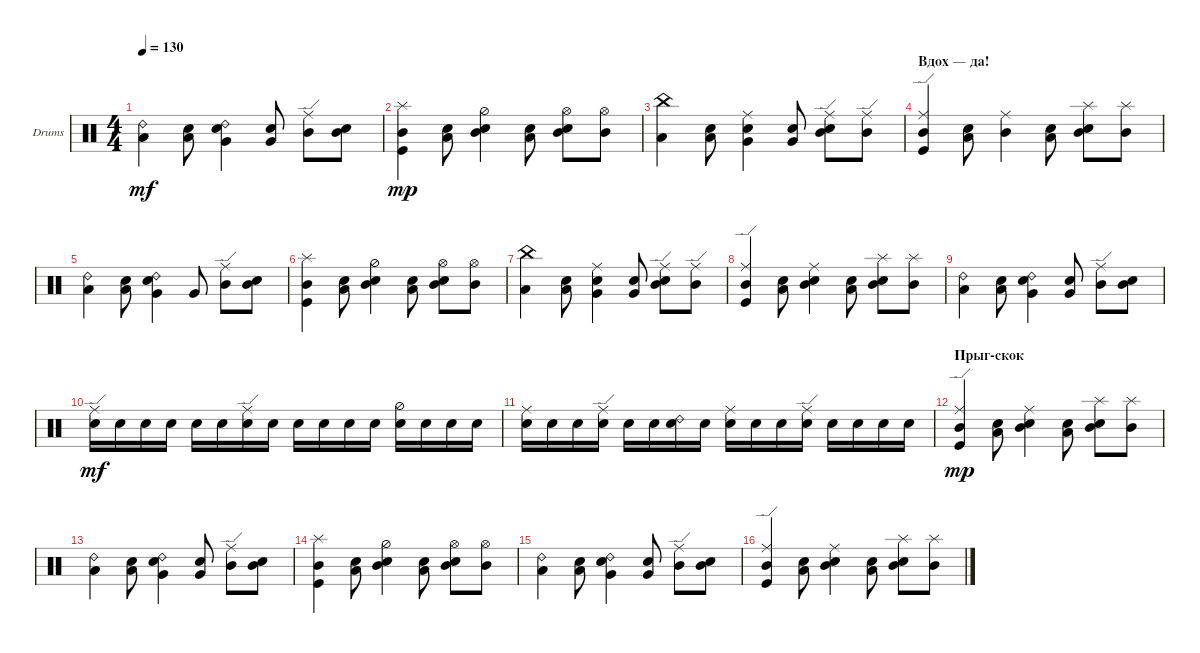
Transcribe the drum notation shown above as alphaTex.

\defaultSystemsLayout 4
\bracketExtendMode groupsimilarinstruments
\firstSystemTrackNameOrientation horizontal
\otherSystemsTrackNameOrientation horizontal
\track ("Drumkit" "Drums") {instrument percussion}
\staff {score}
\articulation defaults
\ts (4 4)
\tempo 130
\clef neutral
\ks c
("Low Tom (hit)" "Ride (bell) 2").4{dy mf} ("Low Tom (hit)" "Snare (hit) 2").8 ("Very Low Tom (hit)" "Snare (hit) 2" "Ride (bell) 2").4 ("Very Low Tom (hit)" "Snare (hit) 2").8 ("Mid Tom (hit)" "Ride (edge)").8 ("Mid Tom (hit)" "Snare (hit) 2").8 |
("Mid Tom (hit)" "Kick (hit)" "Splash (hit)").4{dy mp} ("Low Tom (hit)" "Snare (hit) 2").8 ("Mid Tom (hit)" "Snare (hit) 2" "Hi-Hat (half)").4 ("Low Tom (hit)" "Snare (hit) 2").8 ("Mid Tom (hit)" "Snare (hit) 2" "Hi-Hat (open)").8 ("Mid Tom (hit)" "Hi-Hat (open)").8 |
("Low Tom (hit)" "China (hit)").4 ("Low Tom (hit)" "Snare (hit) 2").8 ("Very Low Tom (hit)" "Snare (hit) 2" "Ride (middle)").4 ("Very Low Tom (hit)" "Snare (hit) 2").8 ("Mid Tom (hit)" "Snare (hit) 2" "Ride (edge)").8 ("Mid Tom (hit)" "Ride (edge)").8 |
\section ("" "Вдох — да!")
("Mid Tom (hit)" "Kick (hit)" "Ride (edge)").4 ("Low Tom (hit)" "Snare (hit) 2").8 ("Mid Tom (hit)" "Ride (middle)").4 ("Low Tom (hit)" "Snare (hit) 2").8 ("Mid Tom (hit)" "Snare (hit) 2" "Splash (hit)").8 ("Mid Tom (hit)" "Splash (hit)").8 |
("Low Tom (hit)" "Ride (bell) 2").4 ("Low Tom (hit)" "Snare (hit) 2").8 ("Very Low Tom (hit)" "Snare (hit) 2" "Ride (bell) 2").4 "Very Low Tom (hit)".8 ("Mid Tom (hit)" "Ride (edge)").8 ("Mid Tom (hit)" "Snare (hit) 2").8 |
("Mid Tom (hit)" "Kick (hit)" "Splash (hit)").4 ("Low Tom (hit)" "Snare (hit) 2").8 ("Mid Tom (hit)" "Snare (hit) 2" "Hi-Hat (half)").4 ("Low Tom (hit)" "Snare (hit) 2").8 ("Mid Tom (hit)" "Snare (hit) 2" "Hi-Hat (open)").8 ("Mid Tom (hit)" "Hi-Hat (open)").8 |
("Low Tom (hit)" "China (hit)").4 ("Low Tom (hit)" "Snare (hit) 2").8 ("Very Low Tom (hit)" "Snare (hit) 2" "Ride (middle)").4 ("Very Low Tom (hit)" "Snare (hit) 2").8 ("Mid Tom (hit)" "Snare (hit) 2" "Ride (edge)").8 ("Mid Tom (hit)" "Ride (edge)").8 |
("Mid Tom (hit)" "Kick (hit)" "Ride (edge)").4 ("Low Tom (hit)" "Snare (hit) 2").8 ("Mid Tom (hit)" "Snare (hit) 2" "Ride (middle)").4 ("Low Tom (hit)" "Snare (hit) 2").8 ("Mid Tom (hit)" "Snare (hit) 2" "Splash (hit)").8 ("Mid Tom (hit)" "Splash (hit)").8 |
("Low Tom (hit)" "Ride (bell) 2").4 ("Low Tom (hit)" "Snare (hit) 2").8 ("Very Low Tom (hit)" "Snare (hit) 2" "Ride (bell) 2").4 ("Very Low Tom (hit)" "Snare (hit) 2").8 ("Mid Tom (hit)" "Ride (edge)").8 ("Mid Tom (hit)" "Snare (hit) 2").8 |
("Snare (hit) 2" "Ride (edge)").16{dy mf} "Snare (hit) 2".16 "Snare (hit) 2".16 "Snare (hit) 2".16 "Snare (hit) 2".16 "Snare (hit) 2".16 ("Snare (hit) 2" "Ride (edge)").16 "Snare (hit) 2".16 "Snare (hit) 2".16 "Snare (hit) 2".16 "Snare (hit) 2".16 "Snare (hit) 2".16 ("Snare (hit) 2" "Hi-Hat (half)").16 "Snare (hit) 2".16 "Snare (hit) 2".16 "Snare (hit) 2".16 |
("Snare (hit) 2" "Ride (middle)").16 "Snare (hit) 2".16 "Snare (hit) 2".16 ("Snare (hit) 2" "Ride (edge)").16 "Snare (hit) 2".16 "Snare (hit) 2".16 ("Snare (hit) 2" "Ride (bell) 2").16 "Snare (hit) 2".16 ("Snare (hit) 2" "Ride (middle)").16 "Snare (hit) 2".16 "Snare (hit) 2".16 ("Snare (hit) 2" "Ride (edge)").16 "Snare (hit) 2".16 "Snare (hit) 2".16 "Snare (hit) 2".16 "Snare (hit) 2".16 |
\section ("" "Прыг-скок")
("Mid Tom (hit)" "Kick (hit)" "Ride (edge)").4{dy mp} ("Low Tom (hit)" "Snare (hit) 2").8 ("Mid Tom (hit)" "Snare (hit) 2" "Ride (middle)").4 ("Low Tom (hit)" "Snare (hit) 2").8 ("Mid Tom (hit)" "Snare (hit) 2" "Splash (hit)").8 ("Mid Tom (hit)" "Splash (hit)").8 |
("Low Tom (hit)" "Ride (bell) 2").4 ("Low Tom (hit)" "Snare (hit) 2").8 ("Very Low Tom (hit)" "Snare (hit) 2" "Ride (bell) 2").4 ("Very Low Tom (hit)" "Snare (hit) 2").8 ("Mid Tom (hit)" "Ride (edge)").8 ("Mid Tom (hit)" "Snare (hit) 2").8 |
("Mid Tom (hit)" "Kick (hit)" "Splash (hit)").4 ("Low Tom (hit)" "Snare (hit) 2").8 ("Mid Tom (hit)" "Snare (hit) 2" "Hi-Hat (half)").4 ("Low Tom (hit)" "Snare (hit) 2").8 ("Mid Tom (hit)" "Snare (hit) 2" "Hi-Hat (open)").8 ("Mid Tom (hit)" "Hi-Hat (open)").8 |
("Low Tom (hit)" "Ride (bell) 2").4 ("Low Tom (hit)" "Snare (hit) 2").8 ("Very Low Tom (hit)" "Snare (hit) 2" "Ride (bell) 2").4 ("Very Low Tom (hit)" "Snare (hit) 2").8 ("Mid Tom (hit)" "Ride (edge)").8 ("Mid Tom (hit)" "Snare (hit) 2").8 |
("Mid Tom (hit)" "Kick (hit)" "Ride (edge)").4 ("Low Tom (hit)" "Snare (hit) 2").8 ("Mid Tom (hit)" "Snare (hit) 2" "Ride (middle)").4 ("Low Tom (hit)" "Snare (hit) 2").8 ("Mid Tom (hit)" "Snare (hit) 2" "Splash (hit)").8 ("Mid Tom (hit)" "Splash (hit)").8
